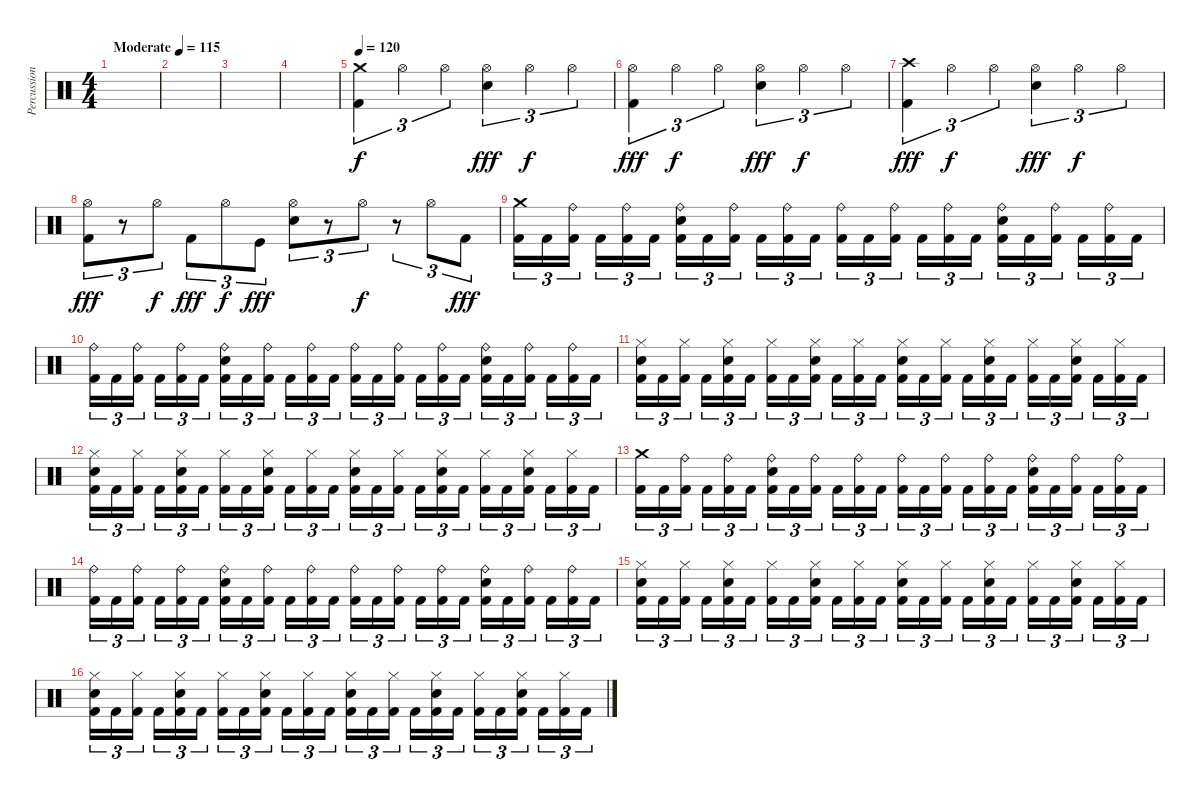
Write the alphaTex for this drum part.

\track ("Percussions" "Percussion") {instrument percussion}
\staff {score}
\articulation defaults
\ts (4 4)
\tempo (115 "Moderate")
\clef neutral
\ks c
|
|
|
|
\tempo 120
("Crash medium (hit)" "Kick (hit) 2").4{tu (3 2)} "Hi-Hat (open)".4{tu (3 2) dy f} "Hi-Hat (open)".4{tu (3 2)} ("Hi-Hat (open)" "Snare (hit) 2").4{tu (3 2) dy fff} "Hi-Hat (open)".4{tu (3 2) dy f} "Hi-Hat (open)".4{tu (3 2)} |
("Hi-Hat (open)" "Kick (hit) 2").4{tu (3 2) dy fff} "Hi-Hat (open)".4{tu (3 2) dy f} "Hi-Hat (open)".4{tu (3 2)} ("Hi-Hat (open)" "Snare (hit) 2").4{tu (3 2) dy fff} "Hi-Hat (open)".4{tu (3 2) dy f} "Hi-Hat (open)".4{tu (3 2)} |
("Crash high (hit)" "Kick (hit) 2").4{tu (3 2) dy fff} "Hi-Hat (open)".4{tu (3 2) dy f} "Hi-Hat (open)".4{tu (3 2)} ("Hi-Hat (open)" "Snare (hit) 2").4{tu (3 2) dy fff} "Hi-Hat (open)".4{tu (3 2) dy f} "Hi-Hat (open)".4{tu (3 2)} |
("Hi-Hat (open)" "Kick (hit) 2").8{tu (3 2) dy fff} r.8{tu (3 2)} "Hi-Hat (open)".8{tu (3 2) dy f} "Kick (hit) 2".8{tu (3 2) dy fff} "Hi-Hat (open)".8{tu (3 2) dy f} "Kick (hit)".8{tu (3 2) dy fff} ("Hi-Hat (open)" "Snare (hit) 2").8{tu (3 2)} r.8{tu (3 2)} "Hi-Hat (open)".8{tu (3 2) dy f} r.8{tu (3 2)} "Hi-Hat (open)".8{tu (3 2)} "Kick (hit) 2".8{tu (3 2) dy fff} |
("Crash medium (hit)" "Kick (hit) 2").16{tu (3 2)} "Kick (hit) 2".16{tu (3 2)} ("Ride (bell)" "Kick (hit) 2").16{tu (3 2) beam splitsecondary} "Kick (hit) 2".16{tu (3 2)} ("Ride (bell)" "Kick (hit) 2").16{tu (3 2)} "Kick (hit) 2".16{tu (3 2)} ("Ride (bell)" "Snare (hit) 2" "Kick (hit) 2").16{tu (3 2)} "Kick (hit) 2".16{tu (3 2)} ("Ride (bell)" "Kick (hit) 2").16{tu (3 2) beam splitsecondary} "Kick (hit) 2".16{tu (3 2)} ("Ride (bell)" "Kick (hit) 2").16{tu (3 2)} "Kick (hit) 2".16{tu (3 2)} ("Ride (bell)" "Kick (hit) 2").16{tu (3 2)} "Kick (hit) 2".16{tu (3 2)} ("Ride (bell)" "Kick (hit) 2").16{tu (3 2) beam splitsecondary} "Kick (hit) 2".16{tu (3 2)} ("Ride (bell)" "Kick (hit) 2").16{tu (3 2)} "Kick (hit) 2".16{tu (3 2)} ("Ride (bell)" "Snare (hit) 2" "Kick (hit) 2").16{tu (3 2)} "Kick (hit) 2".16{tu (3 2)} ("Ride (bell)" "Kick (hit) 2").16{tu (3 2) beam splitsecondary} "Kick (hit) 2".16{tu (3 2)} ("Ride (bell)" "Kick (hit) 2").16{tu (3 2)} "Kick (hit) 2".16{tu (3 2)} |
("Ride (bell)" "Kick (hit) 2").16{tu (3 2)} "Kick (hit) 2".16{tu (3 2)} ("Ride (bell)" "Kick (hit) 2").16{tu (3 2) beam splitsecondary} "Kick (hit) 2".16{tu (3 2)} ("Ride (bell)" "Kick (hit) 2").16{tu (3 2)} "Kick (hit) 2".16{tu (3 2)} ("Ride (bell)" "Snare (hit) 2" "Kick (hit) 2").16{tu (3 2)} "Kick (hit) 2".16{tu (3 2)} ("Ride (bell)" "Kick (hit) 2").16{tu (3 2) beam splitsecondary} "Kick (hit) 2".16{tu (3 2)} ("Ride (bell)" "Kick (hit) 2").16{tu (3 2)} "Kick (hit) 2".16{tu (3 2)} ("Ride (bell)" "Kick (hit) 2").16{tu (3 2)} "Kick (hit) 2".16{tu (3 2)} ("Ride (bell)" "Kick (hit) 2").16{tu (3 2) beam splitsecondary} "Kick (hit) 2".16{tu (3 2)} ("Ride (bell)" "Kick (hit) 2").16{tu (3 2)} "Kick (hit) 2".16{tu (3 2)} ("Ride (bell)" "Snare (hit) 2" "Kick (hit) 2").16{tu (3 2)} "Kick (hit) 2".16{tu (3 2)} ("Ride (bell)" "Kick (hit) 2").16{tu (3 2) beam splitsecondary} "Kick (hit) 2".16{tu (3 2)} ("Ride (bell)" "Kick (hit) 2").16{tu (3 2)} "Kick (hit) 2".16{tu (3 2)} |
("Hi-Hat (closed)" "Snare (hit) 2" "Kick (hit) 2").16{tu (3 2)} "Kick (hit) 2".16{tu (3 2)} ("Hi-Hat (closed)" "Kick (hit) 2").16{tu (3 2) beam splitsecondary} "Kick (hit) 2".16{tu (3 2)} ("Hi-Hat (closed)" "Snare (hit) 2" "Kick (hit) 2").16{tu (3 2)} "Kick (hit) 2".16{tu (3 2)} ("Hi-Hat (closed)" "Kick (hit) 2").16{tu (3 2)} "Kick (hit) 2".16{tu (3 2)} ("Hi-Hat (closed)" "Snare (hit) 2" "Kick (hit) 2").16{tu (3 2) beam splitsecondary} "Kick (hit) 2".16{tu (3 2)} ("Hi-Hat (closed)" "Kick (hit) 2").16{tu (3 2)} "Kick (hit) 2".16{tu (3 2)} ("Hi-Hat (closed)" "Snare (hit) 2" "Kick (hit) 2").16{tu (3 2)} "Kick (hit) 2".16{tu (3 2)} ("Hi-Hat (closed)" "Kick (hit) 2").16{tu (3 2) beam splitsecondary} "Kick (hit) 2".16{tu (3 2)} ("Hi-Hat (closed)" "Snare (hit) 2" "Kick (hit) 2").16{tu (3 2)} "Kick (hit) 2".16{tu (3 2)} ("Hi-Hat (closed)" "Kick (hit) 2").16{tu (3 2)} "Kick (hit) 2".16{tu (3 2)} ("Hi-Hat (closed)" "Snare (hit) 2" "Kick (hit) 2").16{tu (3 2) beam splitsecondary} "Kick (hit) 2".16{tu (3 2)} ("Hi-Hat (closed)" "Kick (hit) 2").16{tu (3 2)} "Kick (hit) 2".16{tu (3 2)} |
("Hi-Hat (closed)" "Snare (hit) 2" "Kick (hit) 2").16{tu (3 2)} "Kick (hit) 2".16{tu (3 2)} ("Hi-Hat (closed)" "Kick (hit) 2").16{tu (3 2) beam splitsecondary} "Kick (hit) 2".16{tu (3 2)} ("Hi-Hat (closed)" "Snare (hit) 2" "Kick (hit) 2").16{tu (3 2)} "Kick (hit) 2".16{tu (3 2)} ("Hi-Hat (closed)" "Kick (hit) 2").16{tu (3 2)} "Kick (hit) 2".16{tu (3 2)} ("Hi-Hat (closed)" "Snare (hit) 2" "Kick (hit) 2").16{tu (3 2) beam splitsecondary} "Kick (hit) 2".16{tu (3 2)} ("Hi-Hat (closed)" "Kick (hit) 2").16{tu (3 2)} "Kick (hit) 2".16{tu (3 2)} ("Hi-Hat (closed)" "Snare (hit) 2" "Kick (hit) 2").16{tu (3 2)} "Kick (hit) 2".16{tu (3 2)} ("Hi-Hat (closed)" "Kick (hit) 2").16{tu (3 2) beam splitsecondary} "Kick (hit) 2".16{tu (3 2)} ("Hi-Hat (closed)" "Snare (hit) 2" "Kick (hit) 2").16{tu (3 2)} "Kick (hit) 2".16{tu (3 2)} ("Hi-Hat (closed)" "Kick (hit) 2").16{tu (3 2)} "Kick (hit) 2".16{tu (3 2)} ("Hi-Hat (closed)" "Snare (hit) 2" "Kick (hit) 2").16{tu (3 2) beam splitsecondary} "Kick (hit) 2".16{tu (3 2)} ("Hi-Hat (closed)" "Kick (hit) 2").16{tu (3 2)} "Kick (hit) 2".16{tu (3 2)} |
("Crash medium (hit)" "Kick (hit) 2").16{tu (3 2)} "Kick (hit) 2".16{tu (3 2)} ("Ride (bell)" "Kick (hit) 2").16{tu (3 2) beam splitsecondary} "Kick (hit) 2".16{tu (3 2)} ("Ride (bell)" "Kick (hit) 2").16{tu (3 2)} "Kick (hit) 2".16{tu (3 2)} ("Ride (bell)" "Snare (hit) 2" "Kick (hit) 2").16{tu (3 2)} "Kick (hit) 2".16{tu (3 2)} ("Ride (bell)" "Kick (hit) 2").16{tu (3 2) beam splitsecondary} "Kick (hit) 2".16{tu (3 2)} ("Ride (bell)" "Kick (hit) 2").16{tu (3 2)} "Kick (hit) 2".16{tu (3 2)} ("Ride (bell)" "Kick (hit) 2").16{tu (3 2)} "Kick (hit) 2".16{tu (3 2)} ("Ride (bell)" "Kick (hit) 2").16{tu (3 2) beam splitsecondary} "Kick (hit) 2".16{tu (3 2)} ("Ride (bell)" "Kick (hit) 2").16{tu (3 2)} "Kick (hit) 2".16{tu (3 2)} ("Ride (bell)" "Snare (hit) 2" "Kick (hit) 2").16{tu (3 2)} "Kick (hit) 2".16{tu (3 2)} ("Ride (bell)" "Kick (hit) 2").16{tu (3 2) beam splitsecondary} "Kick (hit) 2".16{tu (3 2)} ("Ride (bell)" "Kick (hit) 2").16{tu (3 2)} "Kick (hit) 2".16{tu (3 2)} |
("Ride (bell)" "Kick (hit) 2").16{tu (3 2)} "Kick (hit) 2".16{tu (3 2)} ("Ride (bell)" "Kick (hit) 2").16{tu (3 2) beam splitsecondary} "Kick (hit) 2".16{tu (3 2)} ("Ride (bell)" "Kick (hit) 2").16{tu (3 2)} "Kick (hit) 2".16{tu (3 2)} ("Ride (bell)" "Snare (hit) 2" "Kick (hit) 2").16{tu (3 2)} "Kick (hit) 2".16{tu (3 2)} ("Ride (bell)" "Kick (hit) 2").16{tu (3 2) beam splitsecondary} "Kick (hit) 2".16{tu (3 2)} ("Ride (bell)" "Kick (hit) 2").16{tu (3 2)} "Kick (hit) 2".16{tu (3 2)} ("Ride (bell)" "Kick (hit) 2").16{tu (3 2)} "Kick (hit) 2".16{tu (3 2)} ("Ride (bell)" "Kick (hit) 2").16{tu (3 2) beam splitsecondary} "Kick (hit) 2".16{tu (3 2)} ("Ride (bell)" "Kick (hit) 2").16{tu (3 2)} "Kick (hit) 2".16{tu (3 2)} ("Ride (bell)" "Snare (hit) 2" "Kick (hit) 2").16{tu (3 2)} "Kick (hit) 2".16{tu (3 2)} ("Ride (bell)" "Kick (hit) 2").16{tu (3 2) beam splitsecondary} "Kick (hit) 2".16{tu (3 2)} ("Ride (bell)" "Kick (hit) 2").16{tu (3 2)} "Kick (hit) 2".16{tu (3 2)} |
("Hi-Hat (closed)" "Snare (hit) 2" "Kick (hit) 2").16{tu (3 2)} "Kick (hit) 2".16{tu (3 2)} ("Hi-Hat (closed)" "Kick (hit) 2").16{tu (3 2) beam splitsecondary} "Kick (hit) 2".16{tu (3 2)} ("Hi-Hat (closed)" "Snare (hit) 2" "Kick (hit) 2").16{tu (3 2)} "Kick (hit) 2".16{tu (3 2)} ("Hi-Hat (closed)" "Kick (hit) 2").16{tu (3 2)} "Kick (hit) 2".16{tu (3 2)} ("Hi-Hat (closed)" "Snare (hit) 2" "Kick (hit) 2").16{tu (3 2) beam splitsecondary} "Kick (hit) 2".16{tu (3 2)} ("Hi-Hat (closed)" "Kick (hit) 2").16{tu (3 2)} "Kick (hit) 2".16{tu (3 2)} ("Hi-Hat (closed)" "Snare (hit) 2" "Kick (hit) 2").16{tu (3 2)} "Kick (hit) 2".16{tu (3 2)} ("Hi-Hat (closed)" "Kick (hit) 2").16{tu (3 2) beam splitsecondary} "Kick (hit) 2".16{tu (3 2)} ("Hi-Hat (closed)" "Snare (hit) 2" "Kick (hit) 2").16{tu (3 2)} "Kick (hit) 2".16{tu (3 2)} ("Hi-Hat (closed)" "Kick (hit) 2").16{tu (3 2)} "Kick (hit) 2".16{tu (3 2)} ("Hi-Hat (closed)" "Snare (hit) 2" "Kick (hit) 2").16{tu (3 2) beam splitsecondary} "Kick (hit) 2".16{tu (3 2)} ("Hi-Hat (closed)" "Kick (hit) 2").16{tu (3 2)} "Kick (hit) 2".16{tu (3 2)} |
("Hi-Hat (closed)" "Snare (hit) 2" "Kick (hit) 2").16{tu (3 2)} "Kick (hit) 2".16{tu (3 2)} ("Hi-Hat (closed)" "Kick (hit) 2").16{tu (3 2) beam splitsecondary} "Kick (hit) 2".16{tu (3 2)} ("Hi-Hat (closed)" "Snare (hit) 2" "Kick (hit) 2").16{tu (3 2)} "Kick (hit) 2".16{tu (3 2)} ("Hi-Hat (closed)" "Kick (hit) 2").16{tu (3 2)} "Kick (hit) 2".16{tu (3 2)} ("Hi-Hat (closed)" "Snare (hit) 2" "Kick (hit) 2").16{tu (3 2) beam splitsecondary} "Kick (hit) 2".16{tu (3 2)} ("Hi-Hat (closed)" "Kick (hit) 2").16{tu (3 2)} "Kick (hit) 2".16{tu (3 2)} ("Hi-Hat (closed)" "Snare (hit) 2" "Kick (hit) 2").16{tu (3 2)} "Kick (hit) 2".16{tu (3 2)} ("Hi-Hat (closed)" "Kick (hit) 2").16{tu (3 2) beam splitsecondary} "Kick (hit) 2".16{tu (3 2)} ("Hi-Hat (closed)" "Snare (hit) 2" "Kick (hit) 2").16{tu (3 2)} "Kick (hit) 2".16{tu (3 2)} ("Hi-Hat (closed)" "Kick (hit) 2").16{tu (3 2)} "Kick (hit) 2".16{tu (3 2)} ("Hi-Hat (closed)" "Snare (hit) 2" "Kick (hit) 2").16{tu (3 2) beam splitsecondary} "Kick (hit) 2".16{tu (3 2)} ("Hi-Hat (closed)" "Kick (hit) 2").16{tu (3 2)} "Kick (hit) 2".16{tu (3 2)}
